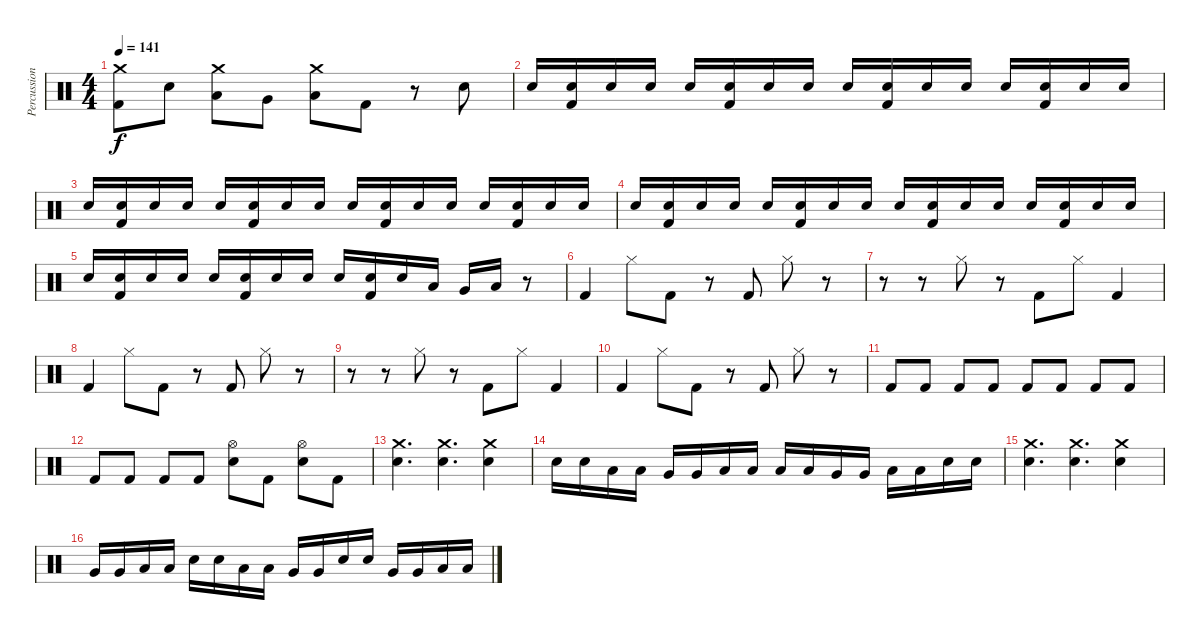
\track ("Percussion" "Percussion") {instrument percussion}
\staff {score}
\articulation defaults
\ts (4 4)
\tempo 141
\clef neutral
\ks c
("Crash medium (hit)" "Kick (hit) 2").8{dy f} "Electric Snare (hit)".8 ("Crash medium (hit)" "Low Tom (hit)").8 "Very Low Tom (hit)".8 ("Crash medium (hit)" "Low Floor Tom (hit)").8 "Kick (hit) 2".8 r.8 "Electric Snare (hit)".8 |
"Electric Snare (hit)".16 ("Electric Snare (hit)" "Kick (hit) 2").16 "Electric Snare (hit)".16 "Electric Snare (hit)".16 "Electric Snare (hit)".16 ("Electric Snare (hit)" "Kick (hit) 2").16 "Electric Snare (hit)".16 "Electric Snare (hit)".16 "Electric Snare (hit)".16 ("Electric Snare (hit)" "Kick (hit) 2").16 "Electric Snare (hit)".16 "Electric Snare (hit)".16 "Electric Snare (hit)".16 ("Electric Snare (hit)" "Kick (hit) 2").16 "Electric Snare (hit)".16 "Electric Snare (hit)".16 |
"Electric Snare (hit)".16 ("Electric Snare (hit)" "Kick (hit) 2").16 "Electric Snare (hit)".16 "Electric Snare (hit)".16 "Electric Snare (hit)".16 ("Electric Snare (hit)" "Kick (hit) 2").16 "Electric Snare (hit)".16 "Electric Snare (hit)".16 "Electric Snare (hit)".16 ("Electric Snare (hit)" "Kick (hit) 2").16 "Electric Snare (hit)".16 "Electric Snare (hit)".16 "Electric Snare (hit)".16 ("Electric Snare (hit)" "Kick (hit) 2").16 "Electric Snare (hit)".16 "Electric Snare (hit)".16 |
"Electric Snare (hit)".16 ("Electric Snare (hit)" "Kick (hit) 2").16 "Electric Snare (hit)".16 "Electric Snare (hit)".16 "Electric Snare (hit)".16 ("Electric Snare (hit)" "Kick (hit) 2").16 "Electric Snare (hit)".16 "Electric Snare (hit)".16 "Electric Snare (hit)".16 ("Electric Snare (hit)" "Kick (hit) 2").16 "Electric Snare (hit)".16 "Electric Snare (hit)".16 "Electric Snare (hit)".16 ("Electric Snare (hit)" "Kick (hit) 2").16 "Electric Snare (hit)".16 "Electric Snare (hit)".16 |
"Electric Snare (hit)".16 ("Electric Snare (hit)" "Kick (hit) 2").16 "Electric Snare (hit)".16 "Electric Snare (hit)".16 "Electric Snare (hit)".16 ("Electric Snare (hit)" "Kick (hit) 2").16 "Electric Snare (hit)".16 "Electric Snare (hit)".16 "Electric Snare (hit)".16 ("Electric Snare (hit)" "Kick (hit) 2").16 "Electric Snare (hit)".16 "Low Tom (hit)".16 "Very Low Tom (hit)".16 "Low Floor Tom (hit)".16 r.8 |
"Kick (hit) 2".4 "Hi-Hat (closed)".8 "Kick (hit) 2".8 r.8 "Kick (hit) 2".8 "Hi-Hat (closed)".8 r.8 |
r.8 r.8 "Hi-Hat (closed)".8 r.8 "Kick (hit) 2".8 "Hi-Hat (closed)".8 "Kick (hit) 2".4 |
"Kick (hit) 2".4 "Hi-Hat (closed)".8 "Kick (hit) 2".8 r.8 "Kick (hit) 2".8 "Hi-Hat (closed)".8 r.8 |
r.8 r.8 "Hi-Hat (closed)".8 r.8 "Kick (hit) 2".8 "Hi-Hat (closed)".8 "Kick (hit) 2".4 |
"Kick (hit) 2".4 "Hi-Hat (closed)".8 "Kick (hit) 2".8 r.8 "Kick (hit) 2".8 "Hi-Hat (closed)".8 r.8 |
"Kick (hit) 2".8 "Kick (hit) 2".8 "Kick (hit) 2".8 "Kick (hit) 2".8 "Kick (hit) 2".8 "Kick (hit) 2".8 "Kick (hit) 2".8 "Kick (hit) 2".8 |
"Kick (hit) 2".8 "Kick (hit) 2".8 "Kick (hit) 2".8 "Kick (hit) 2".8 ("Hi-Hat (open)" "Electric Snare (hit)").8 "Kick (hit) 2".8 ("Hi-Hat (open)" "Electric Snare (hit)").8 "Kick (hit) 2".8 |
("Crash medium (hit)" "Electric Snare (hit)").4{d} ("Crash medium (hit)" "Electric Snare (hit)").4{d} ("Crash medium (hit)" "Electric Snare (hit)").4 |
"Electric Snare (hit)".16 "Electric Snare (hit)".16 "Low Tom (hit)".16 "Low Tom (hit)".16 "Very Low Tom (hit)".16 "Very Low Tom (hit)".16 "Low Floor Tom (hit)".16 "Low Floor Tom (hit)".16 "Low Tom (hit)".16 "Low Tom (hit)".16 "Very Low Tom (hit)".16 "Very Low Tom (hit)".16 "Low Floor Tom (hit)".16 "Low Floor Tom (hit)".16 "Electric Snare (hit)".16 "Electric Snare (hit)".16 |
("Crash medium (hit)" "Electric Snare (hit)").4{d} ("Crash medium (hit)" "Electric Snare (hit)").4{d} ("Crash medium (hit)" "Electric Snare (hit)").4 |
"Very Low Tom (hit)".16 "Very Low Tom (hit)".16 "Low Tom (hit)".16 "Low Tom (hit)".16 "Electric Snare (hit)".16 "Electric Snare (hit)".16 "Low Floor Tom (hit)".16 "Low Floor Tom (hit)".16 "Very Low Tom (hit)".16 "Very Low Tom (hit)".16 "Electric Snare (hit)".16 "Electric Snare (hit)".16 "Very Low Tom (hit)".16 "Very Low Tom (hit)".16 "Low Floor Tom (hit)".16 "Low Floor Tom (hit)".16
